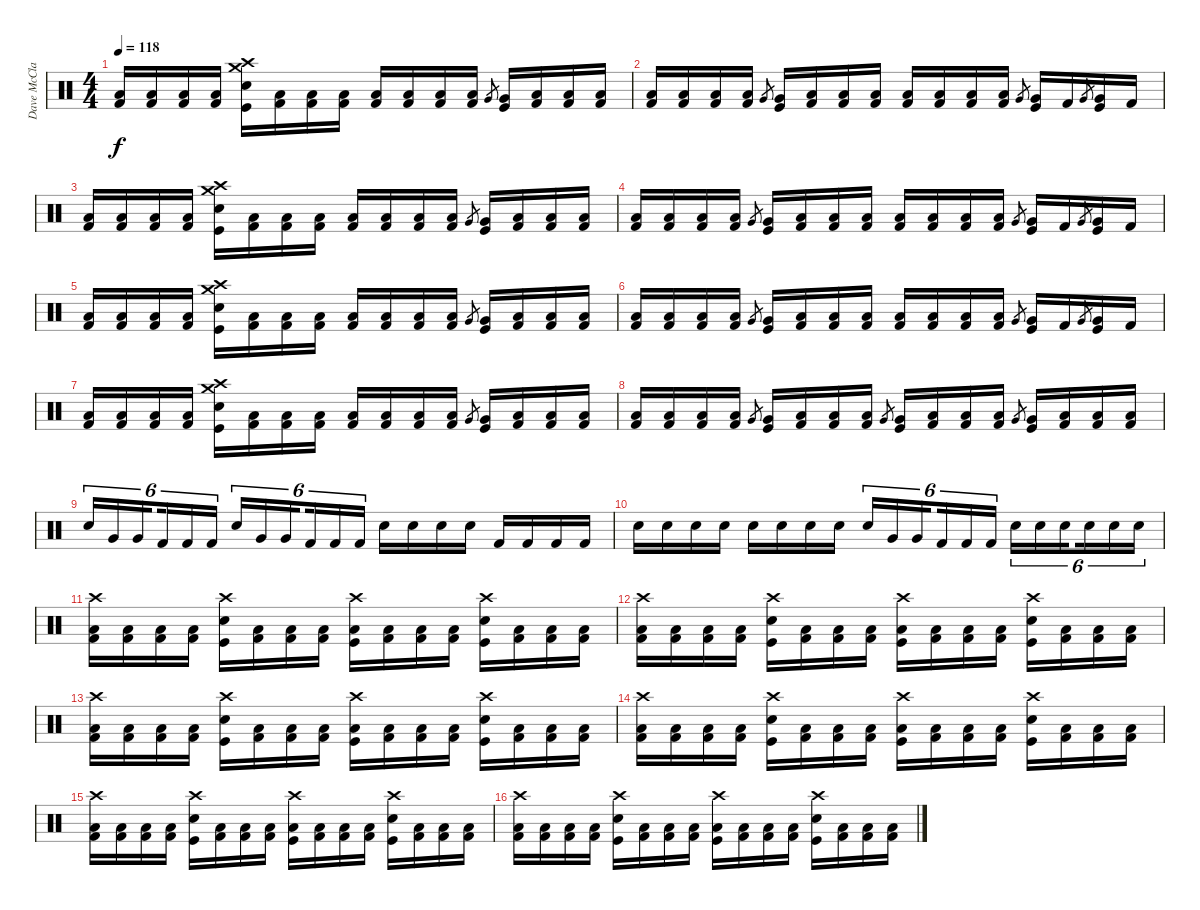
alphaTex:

\track ("Dave McClain" "Dave McCla") {instrument percussion}
\staff {score}
\articulation defaults
\ts (4 4)
\tempo 118
\clef neutral
\ks c
("Kick (hit) 2" "Low Floor Tom (hit)").16{dy f} ("Kick (hit) 2" "Low Floor Tom (hit)").16 ("Kick (hit) 2" "Low Floor Tom (hit)").16 ("Kick (hit) 2" "Low Floor Tom (hit)").16 ("Kick (hit)" "Snare (hit) 2" "Crash medium (hit)" "Crash high (hit)").16 ("Kick (hit) 2" "Low Floor Tom (hit)").16 ("Kick (hit) 2" "Low Floor Tom (hit)").16 ("Kick (hit) 2" "Low Floor Tom (hit)").16 ("Kick (hit) 2" "Low Floor Tom (hit)").16 ("Kick (hit) 2" "Low Floor Tom (hit)").16 ("Kick (hit) 2" "Low Floor Tom (hit)").16 ("Kick (hit) 2" "Low Floor Tom (hit)").16 "Very Low Tom (hit)".8{gr} ("Kick (hit)" "Very Low Tom (hit)").16 ("Kick (hit) 2" "Low Floor Tom (hit)").16 ("Kick (hit) 2" "Low Floor Tom (hit)").16 ("Kick (hit) 2" "Low Floor Tom (hit)").16 |
("Kick (hit) 2" "Low Floor Tom (hit)").16 ("Kick (hit) 2" "Low Floor Tom (hit)").16 ("Kick (hit) 2" "Low Floor Tom (hit)").16 ("Kick (hit) 2" "Low Floor Tom (hit)").16 "Very Low Tom (hit)".8{gr} ("Kick (hit)" "Very Low Tom (hit)").16 ("Kick (hit) 2" "Low Floor Tom (hit)").16 ("Kick (hit) 2" "Low Floor Tom (hit)").16 ("Kick (hit) 2" "Low Floor Tom (hit)").16 ("Kick (hit) 2" "Low Floor Tom (hit)").16 ("Kick (hit) 2" "Low Floor Tom (hit)").16 ("Kick (hit) 2" "Low Floor Tom (hit)").16 ("Kick (hit) 2" "Low Floor Tom (hit)").16 "Very Low Tom (hit)".8{gr} ("Kick (hit)" "Very Low Tom (hit)").16 "Kick (hit) 2".16 "Very Low Tom (hit)".8{gr} ("Kick (hit)" "Very Low Tom (hit)").16 "Kick (hit) 2".16 |
("Kick (hit) 2" "Low Floor Tom (hit)").16 ("Kick (hit) 2" "Low Floor Tom (hit)").16 ("Kick (hit) 2" "Low Floor Tom (hit)").16 ("Kick (hit) 2" "Low Floor Tom (hit)").16 ("Kick (hit)" "Snare (hit) 2" "Crash medium (hit)" "Crash high (hit)").16 ("Kick (hit) 2" "Low Floor Tom (hit)").16 ("Kick (hit) 2" "Low Floor Tom (hit)").16 ("Kick (hit) 2" "Low Floor Tom (hit)").16 ("Kick (hit) 2" "Low Floor Tom (hit)").16 ("Kick (hit) 2" "Low Floor Tom (hit)").16 ("Kick (hit) 2" "Low Floor Tom (hit)").16 ("Kick (hit) 2" "Low Floor Tom (hit)").16 "Very Low Tom (hit)".8{gr} ("Kick (hit)" "Very Low Tom (hit)").16 ("Kick (hit) 2" "Low Floor Tom (hit)").16 ("Kick (hit) 2" "Low Floor Tom (hit)").16 ("Kick (hit) 2" "Low Floor Tom (hit)").16 |
("Kick (hit) 2" "Low Floor Tom (hit)").16 ("Kick (hit) 2" "Low Floor Tom (hit)").16 ("Kick (hit) 2" "Low Floor Tom (hit)").16 ("Kick (hit) 2" "Low Floor Tom (hit)").16 "Very Low Tom (hit)".8{gr} ("Kick (hit)" "Very Low Tom (hit)").16 ("Kick (hit) 2" "Low Floor Tom (hit)").16 ("Kick (hit) 2" "Low Floor Tom (hit)").16 ("Kick (hit) 2" "Low Floor Tom (hit)").16 ("Kick (hit) 2" "Low Floor Tom (hit)").16 ("Kick (hit) 2" "Low Floor Tom (hit)").16 ("Kick (hit) 2" "Low Floor Tom (hit)").16 ("Kick (hit) 2" "Low Floor Tom (hit)").16 "Very Low Tom (hit)".8{gr} ("Kick (hit)" "Very Low Tom (hit)").16 "Kick (hit) 2".16 "Very Low Tom (hit)".8{gr} ("Kick (hit)" "Very Low Tom (hit)").16 "Kick (hit) 2".16 |
("Kick (hit) 2" "Low Floor Tom (hit)").16 ("Kick (hit) 2" "Low Floor Tom (hit)").16 ("Kick (hit) 2" "Low Floor Tom (hit)").16 ("Kick (hit) 2" "Low Floor Tom (hit)").16 ("Kick (hit)" "Snare (hit) 2" "Crash medium (hit)" "Crash high (hit)").16 ("Kick (hit) 2" "Low Floor Tom (hit)").16 ("Kick (hit) 2" "Low Floor Tom (hit)").16 ("Kick (hit) 2" "Low Floor Tom (hit)").16 ("Kick (hit) 2" "Low Floor Tom (hit)").16 ("Kick (hit) 2" "Low Floor Tom (hit)").16 ("Kick (hit) 2" "Low Floor Tom (hit)").16 ("Kick (hit) 2" "Low Floor Tom (hit)").16 "Very Low Tom (hit)".8{gr} ("Kick (hit)" "Very Low Tom (hit)").16 ("Kick (hit) 2" "Low Floor Tom (hit)").16 ("Kick (hit) 2" "Low Floor Tom (hit)").16 ("Kick (hit) 2" "Low Floor Tom (hit)").16 |
("Kick (hit) 2" "Low Floor Tom (hit)").16 ("Kick (hit) 2" "Low Floor Tom (hit)").16 ("Kick (hit) 2" "Low Floor Tom (hit)").16 ("Kick (hit) 2" "Low Floor Tom (hit)").16 "Very Low Tom (hit)".8{gr} ("Kick (hit)" "Very Low Tom (hit)").16 ("Kick (hit) 2" "Low Floor Tom (hit)").16 ("Kick (hit) 2" "Low Floor Tom (hit)").16 ("Kick (hit) 2" "Low Floor Tom (hit)").16 ("Kick (hit) 2" "Low Floor Tom (hit)").16 ("Kick (hit) 2" "Low Floor Tom (hit)").16 ("Kick (hit) 2" "Low Floor Tom (hit)").16 ("Kick (hit) 2" "Low Floor Tom (hit)").16 "Very Low Tom (hit)".8{gr} ("Kick (hit)" "Very Low Tom (hit)").16 "Kick (hit) 2".16 "Very Low Tom (hit)".8{gr} ("Kick (hit)" "Very Low Tom (hit)").16 "Kick (hit) 2".16 |
("Kick (hit) 2" "Low Floor Tom (hit)").16 ("Kick (hit) 2" "Low Floor Tom (hit)").16 ("Kick (hit) 2" "Low Floor Tom (hit)").16 ("Kick (hit) 2" "Low Floor Tom (hit)").16 ("Kick (hit)" "Snare (hit) 2" "Crash medium (hit)" "Crash high (hit)").16 ("Kick (hit) 2" "Low Floor Tom (hit)").16 ("Kick (hit) 2" "Low Floor Tom (hit)").16 ("Kick (hit) 2" "Low Floor Tom (hit)").16 ("Kick (hit) 2" "Low Floor Tom (hit)").16 ("Kick (hit) 2" "Low Floor Tom (hit)").16 ("Kick (hit) 2" "Low Floor Tom (hit)").16 ("Kick (hit) 2" "Low Floor Tom (hit)").16 "Very Low Tom (hit)".8{gr} ("Kick (hit)" "Very Low Tom (hit)").16 ("Kick (hit) 2" "Low Floor Tom (hit)").16 ("Kick (hit) 2" "Low Floor Tom (hit)").16 ("Kick (hit) 2" "Low Floor Tom (hit)").16 |
("Kick (hit) 2" "Low Floor Tom (hit)").16 ("Kick (hit) 2" "Low Floor Tom (hit)").16 ("Kick (hit) 2" "Low Floor Tom (hit)").16 ("Kick (hit) 2" "Low Floor Tom (hit)").16 "Very Low Tom (hit)".8{gr} ("Kick (hit)" "Very Low Tom (hit)").16 ("Kick (hit) 2" "Low Floor Tom (hit)").16 ("Kick (hit) 2" "Low Floor Tom (hit)").16 ("Kick (hit) 2" "Low Floor Tom (hit)").16 "Very Low Tom (hit)".8{gr} ("Kick (hit)" "Very Low Tom (hit)").16 ("Kick (hit) 2" "Low Floor Tom (hit)").16 ("Kick (hit) 2" "Low Floor Tom (hit)").16 ("Kick (hit) 2" "Low Floor Tom (hit)").16 "Very Low Tom (hit)".8{gr} ("Kick (hit)" "Very Low Tom (hit)").16 ("Kick (hit) 2" "Low Floor Tom (hit)").16 ("Kick (hit) 2" "Low Floor Tom (hit)").16 ("Kick (hit) 2" "Low Floor Tom (hit)").16 |
"Electric Snare (hit)".16{tu (6 4)} "Very Low Tom (hit)".16{tu (6 4)} "Very Low Tom (hit)".16{tu (6 4) beam splitsecondary} "Kick (hit) 2".16{tu (6 4)} "Kick (hit) 2".16{tu (6 4)} "Kick (hit) 2".16{tu (6 4)} "Electric Snare (hit)".16{tu (6 4)} "Very Low Tom (hit)".16{tu (6 4)} "Very Low Tom (hit)".16{tu (6 4) beam splitsecondary} "Kick (hit) 2".16{tu (6 4)} "Kick (hit) 2".16{tu (6 4)} "Kick (hit) 2".16{tu (6 4)} "Electric Snare (hit)".16 "Electric Snare (hit)".16 "Electric Snare (hit)".16 "Electric Snare (hit)".16 "Kick (hit) 2".16 "Kick (hit) 2".16 "Kick (hit) 2".16 "Kick (hit) 2".16 |
"Electric Snare (hit)".16 "Electric Snare (hit)".16 "Electric Snare (hit)".16 "Electric Snare (hit)".16 "Electric Snare (hit)".16 "Electric Snare (hit)".16 "Electric Snare (hit)".16 "Electric Snare (hit)".16 "Electric Snare (hit)".16{tu (6 4)} "Very Low Tom (hit)".16{tu (6 4)} "Very Low Tom (hit)".16{tu (6 4) beam splitsecondary} "Kick (hit) 2".16{tu (6 4)} "Kick (hit) 2".16{tu (6 4)} "Kick (hit) 2".16{tu (6 4)} "Electric Snare (hit)".16{tu (6 4)} "Electric Snare (hit)".16{tu (6 4)} "Electric Snare (hit)".16{tu (6 4) beam splitsecondary} "Electric Snare (hit)".16{tu (6 4)} "Electric Snare (hit)".16{tu (6 4)} "Electric Snare (hit)".16{tu (6 4)} |
("Kick (hit) 2" "Low Floor Tom (hit)" "Crash high (hit)").16 ("Kick (hit) 2" "Low Floor Tom (hit)").16 ("Kick (hit) 2" "Low Floor Tom (hit)").16 ("Kick (hit) 2" "Low Floor Tom (hit)").16 ("Kick (hit)" "Snare (hit) 2" "Crash high (hit)").16 ("Kick (hit) 2" "Low Floor Tom (hit)").16 ("Kick (hit) 2" "Low Floor Tom (hit)").16 ("Kick (hit) 2" "Low Floor Tom (hit)").16 ("Kick (hit)" "Low Floor Tom (hit)" "Crash high (hit)").16 ("Kick (hit) 2" "Low Floor Tom (hit)").16 ("Kick (hit) 2" "Low Floor Tom (hit)").16 ("Kick (hit) 2" "Low Floor Tom (hit)").16 ("Kick (hit)" "Snare (hit) 2" "Crash high (hit)").16 ("Kick (hit) 2" "Low Floor Tom (hit)").16 ("Kick (hit) 2" "Low Floor Tom (hit)").16 ("Kick (hit) 2" "Low Floor Tom (hit)").16 |
("Kick (hit) 2" "Low Floor Tom (hit)" "Crash high (hit)").16 ("Kick (hit) 2" "Low Floor Tom (hit)").16 ("Kick (hit) 2" "Low Floor Tom (hit)").16 ("Kick (hit) 2" "Low Floor Tom (hit)").16 ("Kick (hit)" "Snare (hit) 2" "Crash high (hit)").16 ("Kick (hit) 2" "Low Floor Tom (hit)").16 ("Kick (hit) 2" "Low Floor Tom (hit)").16 ("Kick (hit) 2" "Low Floor Tom (hit)").16 ("Kick (hit)" "Low Floor Tom (hit)" "Crash high (hit)").16 ("Kick (hit) 2" "Low Floor Tom (hit)").16 ("Kick (hit) 2" "Low Floor Tom (hit)").16 ("Kick (hit) 2" "Low Floor Tom (hit)").16 ("Kick (hit)" "Snare (hit) 2" "Crash high (hit)").16 ("Kick (hit) 2" "Low Floor Tom (hit)").16 ("Kick (hit) 2" "Low Floor Tom (hit)").16 ("Kick (hit) 2" "Low Floor Tom (hit)").16 |
("Kick (hit) 2" "Low Floor Tom (hit)" "Crash high (hit)").16 ("Kick (hit) 2" "Low Floor Tom (hit)").16 ("Kick (hit) 2" "Low Floor Tom (hit)").16 ("Kick (hit) 2" "Low Floor Tom (hit)").16 ("Kick (hit)" "Snare (hit) 2" "Crash high (hit)").16 ("Kick (hit) 2" "Low Floor Tom (hit)").16 ("Kick (hit) 2" "Low Floor Tom (hit)").16 ("Kick (hit) 2" "Low Floor Tom (hit)").16 ("Kick (hit)" "Low Floor Tom (hit)" "Crash high (hit)").16 ("Kick (hit) 2" "Low Floor Tom (hit)").16 ("Kick (hit) 2" "Low Floor Tom (hit)").16 ("Kick (hit) 2" "Low Floor Tom (hit)").16 ("Kick (hit)" "Snare (hit) 2" "Crash high (hit)").16 ("Kick (hit) 2" "Low Floor Tom (hit)").16 ("Kick (hit) 2" "Low Floor Tom (hit)").16 ("Kick (hit) 2" "Low Floor Tom (hit)").16 |
("Kick (hit) 2" "Low Floor Tom (hit)" "Crash high (hit)").16 ("Kick (hit) 2" "Low Floor Tom (hit)").16 ("Kick (hit) 2" "Low Floor Tom (hit)").16 ("Kick (hit) 2" "Low Floor Tom (hit)").16 ("Kick (hit)" "Snare (hit) 2" "Crash high (hit)").16 ("Kick (hit) 2" "Low Floor Tom (hit)").16 ("Kick (hit) 2" "Low Floor Tom (hit)").16 ("Kick (hit) 2" "Low Floor Tom (hit)").16 ("Kick (hit)" "Low Floor Tom (hit)" "Crash high (hit)").16 ("Kick (hit) 2" "Low Floor Tom (hit)").16 ("Kick (hit) 2" "Low Floor Tom (hit)").16 ("Kick (hit) 2" "Low Floor Tom (hit)").16 ("Kick (hit)" "Snare (hit) 2" "Crash high (hit)").16 ("Kick (hit) 2" "Low Floor Tom (hit)").16 ("Kick (hit) 2" "Low Floor Tom (hit)").16 ("Kick (hit) 2" "Low Floor Tom (hit)").16 |
("Kick (hit) 2" "Low Floor Tom (hit)" "Crash high (hit)").16 ("Kick (hit) 2" "Low Floor Tom (hit)").16 ("Kick (hit) 2" "Low Floor Tom (hit)").16 ("Kick (hit) 2" "Low Floor Tom (hit)").16 ("Kick (hit)" "Snare (hit) 2" "Crash high (hit)").16 ("Kick (hit) 2" "Low Floor Tom (hit)").16 ("Kick (hit) 2" "Low Floor Tom (hit)").16 ("Kick (hit) 2" "Low Floor Tom (hit)").16 ("Kick (hit)" "Low Floor Tom (hit)" "Crash high (hit)").16 ("Kick (hit) 2" "Low Floor Tom (hit)").16 ("Kick (hit) 2" "Low Floor Tom (hit)").16 ("Kick (hit) 2" "Low Floor Tom (hit)").16 ("Kick (hit)" "Snare (hit) 2" "Crash high (hit)").16 ("Kick (hit) 2" "Low Floor Tom (hit)").16 ("Kick (hit) 2" "Low Floor Tom (hit)").16 ("Kick (hit) 2" "Low Floor Tom (hit)").16 |
("Kick (hit) 2" "Low Floor Tom (hit)" "Crash high (hit)").16 ("Kick (hit) 2" "Low Floor Tom (hit)").16 ("Kick (hit) 2" "Low Floor Tom (hit)").16 ("Kick (hit) 2" "Low Floor Tom (hit)").16 ("Kick (hit)" "Snare (hit) 2" "Crash high (hit)").16 ("Kick (hit) 2" "Low Floor Tom (hit)").16 ("Kick (hit) 2" "Low Floor Tom (hit)").16 ("Kick (hit) 2" "Low Floor Tom (hit)").16 ("Kick (hit)" "Low Floor Tom (hit)" "Crash high (hit)").16 ("Kick (hit) 2" "Low Floor Tom (hit)").16 ("Kick (hit) 2" "Low Floor Tom (hit)").16 ("Kick (hit) 2" "Low Floor Tom (hit)").16 ("Kick (hit)" "Snare (hit) 2" "Crash high (hit)").16 ("Kick (hit) 2" "Low Floor Tom (hit)").16 ("Kick (hit) 2" "Low Floor Tom (hit)").16 ("Kick (hit) 2" "Low Floor Tom (hit)").16
